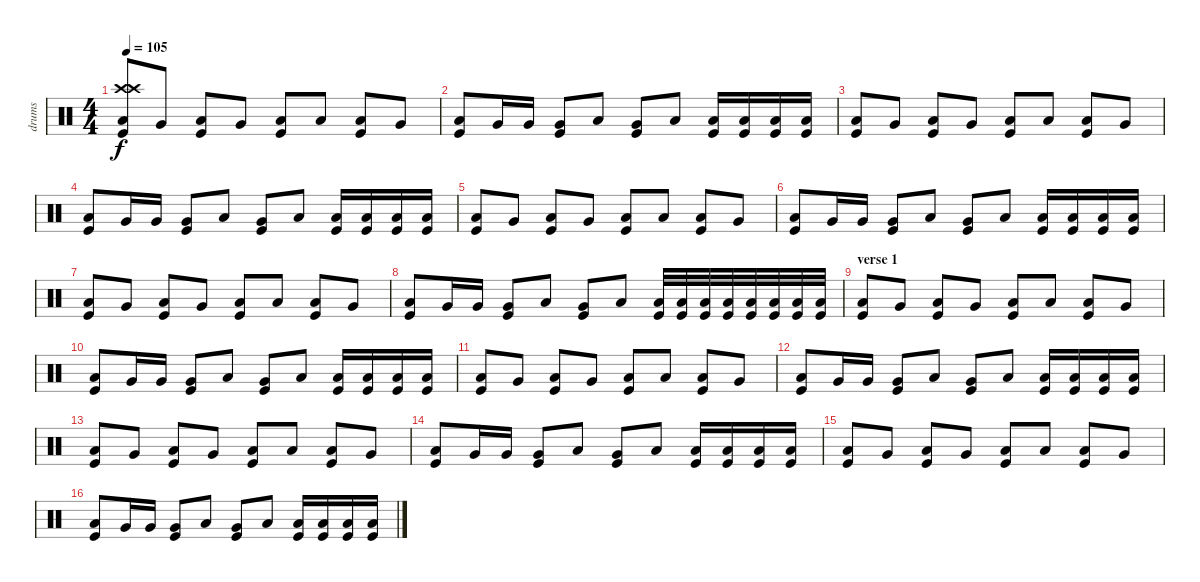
\track ("drums" "drums") {instrument percussion}
\staff {score}
\articulation defaults
\ts (4 4)
\tempo 105
\clef neutral
\ks c
("Kick (hit)" "Crash high (hit)" "Crash high (hit)" "Low Floor Tom (hit)").8{dy f} "Very Low Tom (hit)".8 ("Kick (hit)" "Low Floor Tom (hit)").8 "Very Low Tom (hit)".8 ("Kick (hit)" "Low Floor Tom (hit)").8 "Low Floor Tom (hit)".8 ("Kick (hit)" "Low Floor Tom (hit)").8 "Very Low Tom (hit)".8 |
("Low Floor Tom (hit)" "Kick (hit)").8 "Very Low Tom (hit)".16 "Very Low Tom (hit)".16 ("Very Low Tom (hit)" "Kick (hit)").8 "Low Floor Tom (hit)".8 ("Very Low Tom (hit)" "Kick (hit)").8 "Low Floor Tom (hit)".8 ("Low Floor Tom (hit)" "Kick (hit)").16 ("Low Floor Tom (hit)" "Kick (hit)").16 ("Low Floor Tom (hit)" "Kick (hit)").16 ("Low Floor Tom (hit)" "Kick (hit)").16 |
("Low Floor Tom (hit)" "Kick (hit)").8 "Very Low Tom (hit)".8 ("Low Floor Tom (hit)" "Kick (hit)").8 "Very Low Tom (hit)".8 ("Low Floor Tom (hit)" "Kick (hit)").8 "Low Floor Tom (hit)".8 ("Low Floor Tom (hit)" "Kick (hit)").8 "Very Low Tom (hit)".8 |
("Low Floor Tom (hit)" "Kick (hit)").8 "Very Low Tom (hit)".16 "Very Low Tom (hit)".16 ("Very Low Tom (hit)" "Kick (hit)").8 "Low Floor Tom (hit)".8 ("Very Low Tom (hit)" "Kick (hit)").8 "Low Floor Tom (hit)".8 ("Low Floor Tom (hit)" "Kick (hit)").16 ("Low Floor Tom (hit)" "Kick (hit)").16 ("Low Floor Tom (hit)" "Kick (hit)").16 ("Low Floor Tom (hit)" "Kick (hit)").16 |
("Kick (hit)" "Low Floor Tom (hit)").8 "Very Low Tom (hit)".8 ("Kick (hit)" "Low Floor Tom (hit)").8 "Very Low Tom (hit)".8 ("Kick (hit)" "Low Floor Tom (hit)").8 "Low Floor Tom (hit)".8 ("Kick (hit)" "Low Floor Tom (hit)").8 "Very Low Tom (hit)".8 |
("Low Floor Tom (hit)" "Kick (hit)").8 "Very Low Tom (hit)".16 "Very Low Tom (hit)".16 ("Very Low Tom (hit)" "Kick (hit)").8 "Low Floor Tom (hit)".8 ("Very Low Tom (hit)" "Kick (hit)").8 "Low Floor Tom (hit)".8 ("Low Floor Tom (hit)" "Kick (hit)").16 ("Low Floor Tom (hit)" "Kick (hit)").16 ("Low Floor Tom (hit)" "Kick (hit)").16 ("Low Floor Tom (hit)" "Kick (hit)").16 |
("Low Floor Tom (hit)" "Kick (hit)").8 "Very Low Tom (hit)".8 ("Low Floor Tom (hit)" "Kick (hit)").8 "Very Low Tom (hit)".8 ("Low Floor Tom (hit)" "Kick (hit)").8 "Low Floor Tom (hit)".8 ("Low Floor Tom (hit)" "Kick (hit)").8 "Very Low Tom (hit)".8 |
("Low Floor Tom (hit)" "Kick (hit)").8 "Very Low Tom (hit)".16 "Very Low Tom (hit)".16 ("Very Low Tom (hit)" "Kick (hit)").8 "Low Floor Tom (hit)".8 ("Very Low Tom (hit)" "Kick (hit)").8 "Low Floor Tom (hit)".8 ("Low Tom (hit)" "Kick (hit)").32 ("Low Tom (hit)" "Kick (hit)").32 ("Low Tom (hit)" "Kick (hit)").32 ("Low Tom (hit)" "Kick (hit)").32 ("Low Floor Tom (hit)" "Kick (hit)").32 ("Low Floor Tom (hit)" "Kick (hit)").32 ("Low Floor Tom (hit)" "Kick (hit)").32 ("Low Floor Tom (hit)" "Kick (hit)").32 |
\section ("" "verse 1")
("Kick (hit)" "Low Floor Tom (hit)").8 "Very Low Tom (hit)".8 ("Kick (hit)" "Low Floor Tom (hit)").8 "Very Low Tom (hit)".8 ("Kick (hit)" "Low Floor Tom (hit)").8 "Low Floor Tom (hit)".8 ("Kick (hit)" "Low Floor Tom (hit)").8 "Very Low Tom (hit)".8 |
\section ("" "")
("Low Floor Tom (hit)" "Kick (hit)").8 "Very Low Tom (hit)".16 "Very Low Tom (hit)".16 ("Very Low Tom (hit)" "Kick (hit)").8 "Low Floor Tom (hit)".8 ("Very Low Tom (hit)" "Kick (hit)").8 "Low Floor Tom (hit)".8 ("Low Floor Tom (hit)" "Kick (hit)").16 ("Low Floor Tom (hit)" "Kick (hit)").16 ("Low Floor Tom (hit)" "Kick (hit)").16 ("Low Floor Tom (hit)" "Kick (hit)").16 |
("Kick (hit)" "Low Floor Tom (hit)").8 "Very Low Tom (hit)".8 ("Kick (hit)" "Low Floor Tom (hit)").8 "Very Low Tom (hit)".8 ("Kick (hit)" "Low Floor Tom (hit)").8 "Low Floor Tom (hit)".8 ("Kick (hit)" "Low Floor Tom (hit)").8 "Very Low Tom (hit)".8 |
("Low Floor Tom (hit)" "Kick (hit)").8 "Very Low Tom (hit)".16 "Very Low Tom (hit)".16 ("Very Low Tom (hit)" "Kick (hit)").8 "Low Floor Tom (hit)".8 ("Very Low Tom (hit)" "Kick (hit)").8 "Low Floor Tom (hit)".8 ("Low Floor Tom (hit)" "Kick (hit)").16 ("Low Floor Tom (hit)" "Kick (hit)").16 ("Low Floor Tom (hit)" "Kick (hit)").16 ("Low Floor Tom (hit)" "Kick (hit)").16 |
("Kick (hit)" "Low Floor Tom (hit)").8 "Very Low Tom (hit)".8 ("Kick (hit)" "Low Floor Tom (hit)").8 "Very Low Tom (hit)".8 ("Kick (hit)" "Low Floor Tom (hit)").8 "Low Floor Tom (hit)".8 ("Kick (hit)" "Low Floor Tom (hit)").8 "Very Low Tom (hit)".8 |
("Low Floor Tom (hit)" "Kick (hit)").8 "Very Low Tom (hit)".16 "Very Low Tom (hit)".16 ("Very Low Tom (hit)" "Kick (hit)").8 "Low Floor Tom (hit)".8 ("Very Low Tom (hit)" "Kick (hit)").8 "Low Floor Tom (hit)".8 ("Low Floor Tom (hit)" "Kick (hit)").16 ("Low Floor Tom (hit)" "Kick (hit)").16 ("Low Floor Tom (hit)" "Kick (hit)").16 ("Low Floor Tom (hit)" "Kick (hit)").16 |
("Kick (hit)" "Low Floor Tom (hit)").8 "Very Low Tom (hit)".8 ("Kick (hit)" "Low Floor Tom (hit)").8 "Very Low Tom (hit)".8 ("Kick (hit)" "Low Floor Tom (hit)").8 "Low Floor Tom (hit)".8 ("Kick (hit)" "Low Floor Tom (hit)").8 "Very Low Tom (hit)".8 |
("Low Floor Tom (hit)" "Kick (hit)").8 "Very Low Tom (hit)".16 "Very Low Tom (hit)".16 ("Very Low Tom (hit)" "Kick (hit)").8 "Low Floor Tom (hit)".8 ("Very Low Tom (hit)" "Kick (hit)").8 "Low Floor Tom (hit)".8 ("Low Floor Tom (hit)" "Kick (hit)").16 ("Low Floor Tom (hit)" "Kick (hit)").16 ("Low Floor Tom (hit)" "Kick (hit)").16 ("Low Floor Tom (hit)" "Kick (hit)").16
